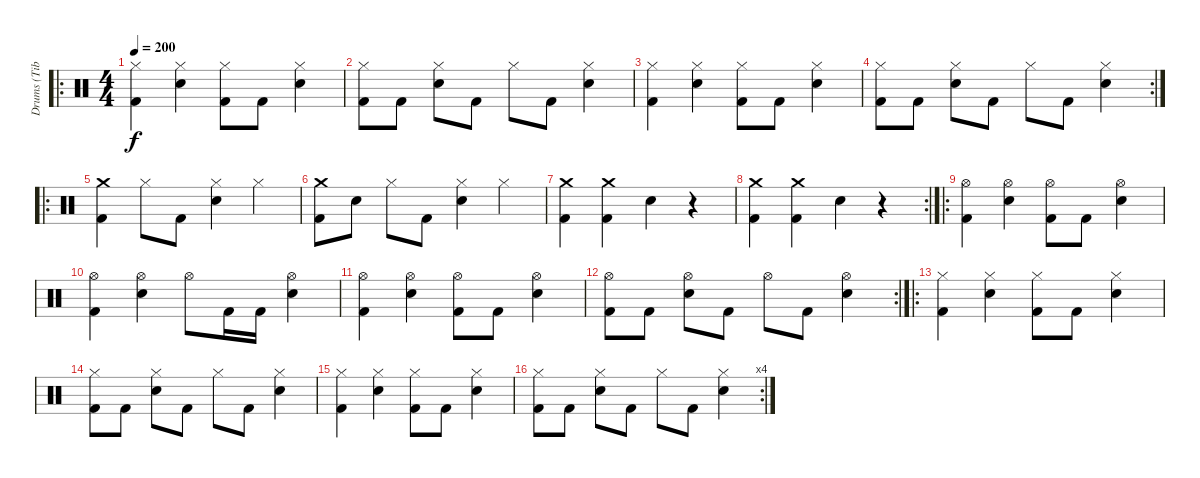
\track ("Drums (Tibcsi Kiss)" "Drums (Tib") {instrument percussion}
\staff {score}
\articulation defaults
\ro
\ts (4 4)
\tempo 200
\clef neutral
\ks c
("Hi-Hat (closed)" "Kick (hit) 2").4{dy f} ("Hi-Hat (closed)" "Snare (hit) 2").4 ("Hi-Hat (closed)" "Kick (hit) 2").8 "Kick (hit) 2".8 ("Hi-Hat (closed)" "Snare (hit) 2").4 |
("Hi-Hat (closed)" "Kick (hit) 2").8 "Kick (hit) 2".8 ("Hi-Hat (closed)" "Snare (hit) 2").8 "Kick (hit) 2".8 "Hi-Hat (closed)".8 "Kick (hit) 2".8 ("Hi-Hat (closed)" "Snare (hit) 2").4 |
("Hi-Hat (closed)" "Kick (hit) 2").4 ("Hi-Hat (closed)" "Snare (hit) 2").4 ("Hi-Hat (closed)" "Kick (hit) 2").8 "Kick (hit) 2".8 ("Hi-Hat (closed)" "Snare (hit) 2").4 |
\rc 2
("Hi-Hat (closed)" "Kick (hit) 2").8 "Kick (hit) 2".8 ("Hi-Hat (closed)" "Snare (hit) 2").8 "Kick (hit) 2".8 "Hi-Hat (closed)".8 "Kick (hit) 2".8 ("Hi-Hat (closed)" "Snare (hit) 2").4 |
\ro
("Crash medium (hit)" "Kick (hit) 2").4 "Hi-Hat (closed)".8 "Kick (hit) 2".8 ("Hi-Hat (closed)" "Snare (hit) 2").4 "Hi-Hat (closed)".4 |
("Crash medium (hit)" "Kick (hit) 2").8 "Snare (hit) 2".8 "Hi-Hat (closed)".8 "Kick (hit) 2".8 ("Hi-Hat (closed)" "Snare (hit) 2").4 "Hi-Hat (closed)".4 |
("Crash medium (hit)" "Kick (hit) 2").4 ("Crash medium (hit)" "Kick (hit) 2").4 "Snare (hit) 2".4 r.4 |
\rc 2
("Crash medium (hit)" "Kick (hit) 2").4 ("Crash medium (hit)" "Kick (hit) 2").4 "Snare (hit) 2".4 r.4 |
\ro
("Hi-Hat (open)" "Kick (hit) 2").4 ("Hi-Hat (open)" "Snare (hit) 2").4 ("Hi-Hat (open)" "Kick (hit) 2").8 "Kick (hit) 2".8 ("Hi-Hat (open)" "Snare (hit) 2").4 |
("Hi-Hat (open)" "Kick (hit) 2").4 ("Hi-Hat (open)" "Snare (hit) 2").4 "Hi-Hat (open)".8 "Kick (hit) 2".16 "Kick (hit) 2".16 ("Hi-Hat (open)" "Snare (hit) 2").4 |
("Hi-Hat (open)" "Kick (hit) 2").4 ("Hi-Hat (open)" "Snare (hit) 2").4 ("Hi-Hat (open)" "Kick (hit) 2").8 "Kick (hit) 2".8 ("Hi-Hat (open)" "Snare (hit) 2").4 |
\rc 2
("Hi-Hat (open)" "Kick (hit) 2").8 "Kick (hit) 2".8 ("Hi-Hat (open)" "Snare (hit) 2").8 "Kick (hit) 2".8 "Hi-Hat (open)".8 "Kick (hit) 2".8 ("Hi-Hat (open)" "Snare (hit) 2").4 |
\ro
("Hi-Hat (closed)" "Kick (hit) 2").4 ("Hi-Hat (closed)" "Snare (hit) 2").4 ("Hi-Hat (closed)" "Kick (hit) 2").8 "Kick (hit) 2".8 ("Hi-Hat (closed)" "Snare (hit) 2").4 |
("Hi-Hat (closed)" "Kick (hit) 2").8 "Kick (hit) 2".8 ("Hi-Hat (closed)" "Snare (hit) 2").8 "Kick (hit) 2".8 "Hi-Hat (closed)".8 "Kick (hit) 2".8 ("Hi-Hat (closed)" "Snare (hit) 2").4 |
("Hi-Hat (closed)" "Kick (hit) 2").4 ("Hi-Hat (closed)" "Snare (hit) 2").4 ("Hi-Hat (closed)" "Kick (hit) 2").8 "Kick (hit) 2".8 ("Hi-Hat (closed)" "Snare (hit) 2").4 |
\rc 4
("Hi-Hat (closed)" "Kick (hit) 2").8 "Kick (hit) 2".8 ("Hi-Hat (closed)" "Snare (hit) 2").8 "Kick (hit) 2".8 "Hi-Hat (closed)".8 "Kick (hit) 2".8 ("Hi-Hat (closed)" "Snare (hit) 2").4
